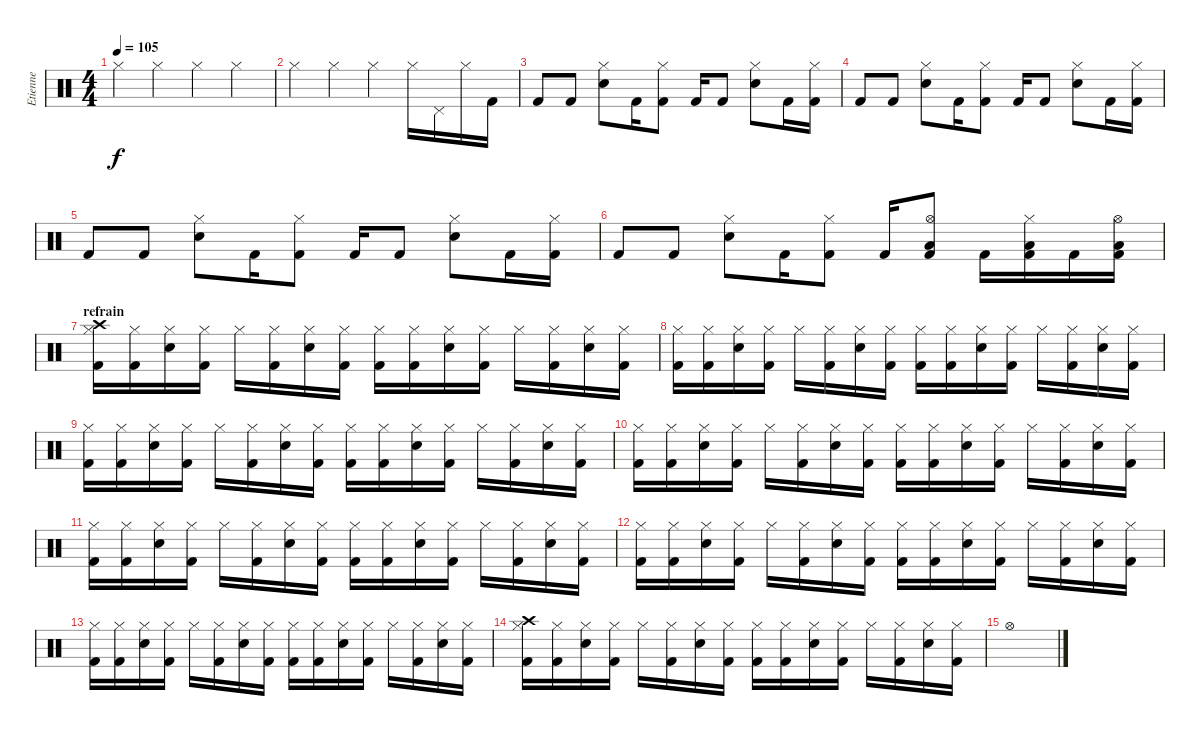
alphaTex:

\track ("Etienne" "Etienne") {instrument percussion}
\staff {score}
\articulation defaults
\ts (4 4)
\tempo 105
\clef neutral
\ks c "Hi-Hat (closed)".4{dy f} "Hi-Hat (closed)".4 "Hi-Hat (closed)".4 "Hi-Hat (closed)".4
|
"Hi-Hat (closed)".4 "Hi-Hat (closed)".4 "Hi-Hat (closed)".4 "Hi-Hat (closed)".16 "Pedal Hi-Hat (hit)".16 "Hi-Hat (closed)".16 "Kick (hit) 2".16 |
"Kick (hit) 2".8 "Kick (hit) 2".8 ("Electric Snare (hit)" "Hi-Hat (closed)").8 "Kick (hit) 2".16 ("Kick (hit) 2" "Hi-Hat (closed)").8 "Kick (hit) 2".16 "Kick (hit) 2".8 ("Electric Snare (hit)" "Hi-Hat (closed)").8 "Kick (hit) 2".16 ("Kick (hit) 2" "Hi-Hat (closed)").16 |
"Kick (hit) 2".8 "Kick (hit) 2".8 ("Electric Snare (hit)" "Hi-Hat (closed)").8 "Kick (hit) 2".16 ("Kick (hit) 2" "Hi-Hat (closed)").8 "Kick (hit) 2".16 "Kick (hit) 2".8 ("Electric Snare (hit)" "Hi-Hat (closed)").8 "Kick (hit) 2".16 ("Kick (hit) 2" "Hi-Hat (closed)").16 |
"Kick (hit) 2".8 "Kick (hit) 2".8 ("Electric Snare (hit)" "Hi-Hat (closed)").8 "Kick (hit) 2".16 ("Kick (hit) 2" "Hi-Hat (closed)").8 "Kick (hit) 2".16 "Kick (hit) 2".8 ("Electric Snare (hit)" "Hi-Hat (closed)").8 "Kick (hit) 2".16 ("Kick (hit) 2" "Hi-Hat (closed)").16 |
"Kick (hit) 2".8 "Kick (hit) 2".8 ("Electric Snare (hit)" "Hi-Hat (closed)").8 "Kick (hit) 2".16 ("Kick (hit) 2" "Hi-Hat (closed)").8 "Kick (hit) 2".16 ("Kick (hit) 2" "Hi-Hat (open)" "Low Floor Tom (hit)").8 "Kick (hit) 2".16 ("Kick (hit) 2" "Hi-Hat (closed)" "Low Floor Tom (hit)").16 "Kick (hit) 2".16 ("Kick (hit) 2" "Hi-Hat (open)" "Low Floor Tom (hit)").16 |
\section ("" "refrain")
("Hi-Hat (closed)" "Crash high (hit)" "Kick (hit) 2").16 ("Hi-Hat (closed)" "Kick (hit) 2").16 ("Hi-Hat (closed)" "Electric Snare (hit)").16 ("Hi-Hat (closed)" "Kick (hit) 2").16 "Hi-Hat (closed)".16 ("Hi-Hat (closed)" "Kick (hit) 2").16 ("Hi-Hat (closed)" "Electric Snare (hit)").16 ("Hi-Hat (closed)" "Kick (hit) 2").16 ("Hi-Hat (closed)" "Kick (hit) 2").16 ("Hi-Hat (closed)" "Kick (hit) 2").16 ("Hi-Hat (closed)" "Electric Snare (hit)").16 ("Hi-Hat (closed)" "Kick (hit) 2").16 "Hi-Hat (closed)".16 ("Hi-Hat (closed)" "Kick (hit) 2").16 ("Hi-Hat (closed)" "Electric Snare (hit)").16 ("Hi-Hat (closed)" "Kick (hit) 2").16 |
("Hi-Hat (closed)" "Kick (hit) 2").16 ("Hi-Hat (closed)" "Kick (hit) 2").16 ("Hi-Hat (closed)" "Electric Snare (hit)").16 ("Hi-Hat (closed)" "Kick (hit) 2").16 "Hi-Hat (closed)".16 ("Hi-Hat (closed)" "Kick (hit) 2").16 ("Hi-Hat (closed)" "Electric Snare (hit)").16 ("Hi-Hat (closed)" "Kick (hit) 2").16 ("Hi-Hat (closed)" "Kick (hit) 2").16 ("Hi-Hat (closed)" "Kick (hit) 2").16 ("Hi-Hat (closed)" "Electric Snare (hit)").16 ("Hi-Hat (closed)" "Kick (hit) 2").16 "Hi-Hat (closed)".16 ("Hi-Hat (closed)" "Kick (hit) 2").16 ("Hi-Hat (closed)" "Electric Snare (hit)").16 ("Hi-Hat (closed)" "Kick (hit) 2").16 |
("Hi-Hat (closed)" "Kick (hit) 2").16 ("Hi-Hat (closed)" "Kick (hit) 2").16 ("Hi-Hat (closed)" "Electric Snare (hit)").16 ("Hi-Hat (closed)" "Kick (hit) 2").16 "Hi-Hat (closed)".16 ("Hi-Hat (closed)" "Kick (hit) 2").16 ("Hi-Hat (closed)" "Electric Snare (hit)").16 ("Hi-Hat (closed)" "Kick (hit) 2").16 ("Hi-Hat (closed)" "Kick (hit) 2").16 ("Hi-Hat (closed)" "Kick (hit) 2").16 ("Hi-Hat (closed)" "Electric Snare (hit)").16 ("Hi-Hat (closed)" "Kick (hit) 2").16 "Hi-Hat (closed)".16 ("Hi-Hat (closed)" "Kick (hit) 2").16 ("Hi-Hat (closed)" "Electric Snare (hit)").16 ("Hi-Hat (closed)" "Kick (hit) 2").16 |
("Hi-Hat (closed)" "Kick (hit) 2").16 ("Hi-Hat (closed)" "Kick (hit) 2").16 ("Hi-Hat (closed)" "Electric Snare (hit)").16 ("Hi-Hat (closed)" "Kick (hit) 2").16 "Hi-Hat (closed)".16 ("Hi-Hat (closed)" "Kick (hit) 2").16 ("Hi-Hat (closed)" "Electric Snare (hit)").16 ("Hi-Hat (closed)" "Kick (hit) 2").16 ("Hi-Hat (closed)" "Kick (hit) 2").16 ("Hi-Hat (closed)" "Kick (hit) 2").16 ("Hi-Hat (closed)" "Electric Snare (hit)").16 ("Hi-Hat (closed)" "Kick (hit) 2").16 "Hi-Hat (closed)".16 ("Hi-Hat (closed)" "Kick (hit) 2").16 ("Hi-Hat (closed)" "Electric Snare (hit)").16 ("Hi-Hat (closed)" "Kick (hit) 2").16 |
("Hi-Hat (closed)" "Kick (hit) 2").16 ("Hi-Hat (closed)" "Kick (hit) 2").16 ("Hi-Hat (closed)" "Electric Snare (hit)").16 ("Hi-Hat (closed)" "Kick (hit) 2").16 "Hi-Hat (closed)".16 ("Hi-Hat (closed)" "Kick (hit) 2").16 ("Hi-Hat (closed)" "Electric Snare (hit)").16 ("Hi-Hat (closed)" "Kick (hit) 2").16 ("Hi-Hat (closed)" "Kick (hit) 2").16 ("Hi-Hat (closed)" "Kick (hit) 2").16 ("Hi-Hat (closed)" "Electric Snare (hit)").16 ("Hi-Hat (closed)" "Kick (hit) 2").16 "Hi-Hat (closed)".16 ("Hi-Hat (closed)" "Kick (hit) 2").16 ("Hi-Hat (closed)" "Electric Snare (hit)").16 ("Hi-Hat (closed)" "Kick (hit) 2").16 |
("Hi-Hat (closed)" "Kick (hit) 2").16 ("Hi-Hat (closed)" "Kick (hit) 2").16 ("Hi-Hat (closed)" "Electric Snare (hit)").16 ("Hi-Hat (closed)" "Kick (hit) 2").16 "Hi-Hat (closed)".16 ("Hi-Hat (closed)" "Kick (hit) 2").16 ("Hi-Hat (closed)" "Electric Snare (hit)").16 ("Hi-Hat (closed)" "Kick (hit) 2").16 ("Hi-Hat (closed)" "Kick (hit) 2").16 ("Hi-Hat (closed)" "Kick (hit) 2").16 ("Hi-Hat (closed)" "Electric Snare (hit)").16 ("Hi-Hat (closed)" "Kick (hit) 2").16 "Hi-Hat (closed)".16 ("Hi-Hat (closed)" "Kick (hit) 2").16 ("Hi-Hat (closed)" "Electric Snare (hit)").16 ("Hi-Hat (closed)" "Kick (hit) 2").16 |
("Hi-Hat (closed)" "Kick (hit) 2").16 ("Hi-Hat (closed)" "Kick (hit) 2").16 ("Hi-Hat (closed)" "Electric Snare (hit)").16 ("Hi-Hat (closed)" "Kick (hit) 2").16 "Hi-Hat (closed)".16 ("Hi-Hat (closed)" "Kick (hit) 2").16 ("Hi-Hat (closed)" "Electric Snare (hit)").16 ("Hi-Hat (closed)" "Kick (hit) 2").16 ("Hi-Hat (closed)" "Kick (hit) 2").16 ("Hi-Hat (closed)" "Kick (hit) 2").16 ("Hi-Hat (closed)" "Electric Snare (hit)").16 ("Hi-Hat (closed)" "Kick (hit) 2").16 "Hi-Hat (closed)".16 ("Hi-Hat (closed)" "Kick (hit) 2").16 ("Hi-Hat (closed)" "Electric Snare (hit)").16 ("Hi-Hat (closed)" "Kick (hit) 2").16 |
("Hi-Hat (closed)" "Crash high (hit)" "Kick (hit) 2").16 ("Hi-Hat (closed)" "Kick (hit) 2").16 ("Hi-Hat (closed)" "Electric Snare (hit)").16 ("Hi-Hat (closed)" "Kick (hit) 2").16 "Hi-Hat (closed)".16 ("Hi-Hat (closed)" "Kick (hit) 2").16 ("Hi-Hat (closed)" "Electric Snare (hit)").16 ("Hi-Hat (closed)" "Kick (hit) 2").16 ("Hi-Hat (closed)" "Kick (hit) 2").16 ("Hi-Hat (closed)" "Kick (hit) 2").16 ("Hi-Hat (closed)" "Electric Snare (hit)").16 ("Hi-Hat (closed)" "Kick (hit) 2").16 "Hi-Hat (closed)".16 ("Hi-Hat (closed)" "Kick (hit) 2").16 ("Hi-Hat (closed)" "Electric Snare (hit)").16 ("Hi-Hat (closed)" "Kick (hit) 2").16 |
"Hi-Hat (open)".1
